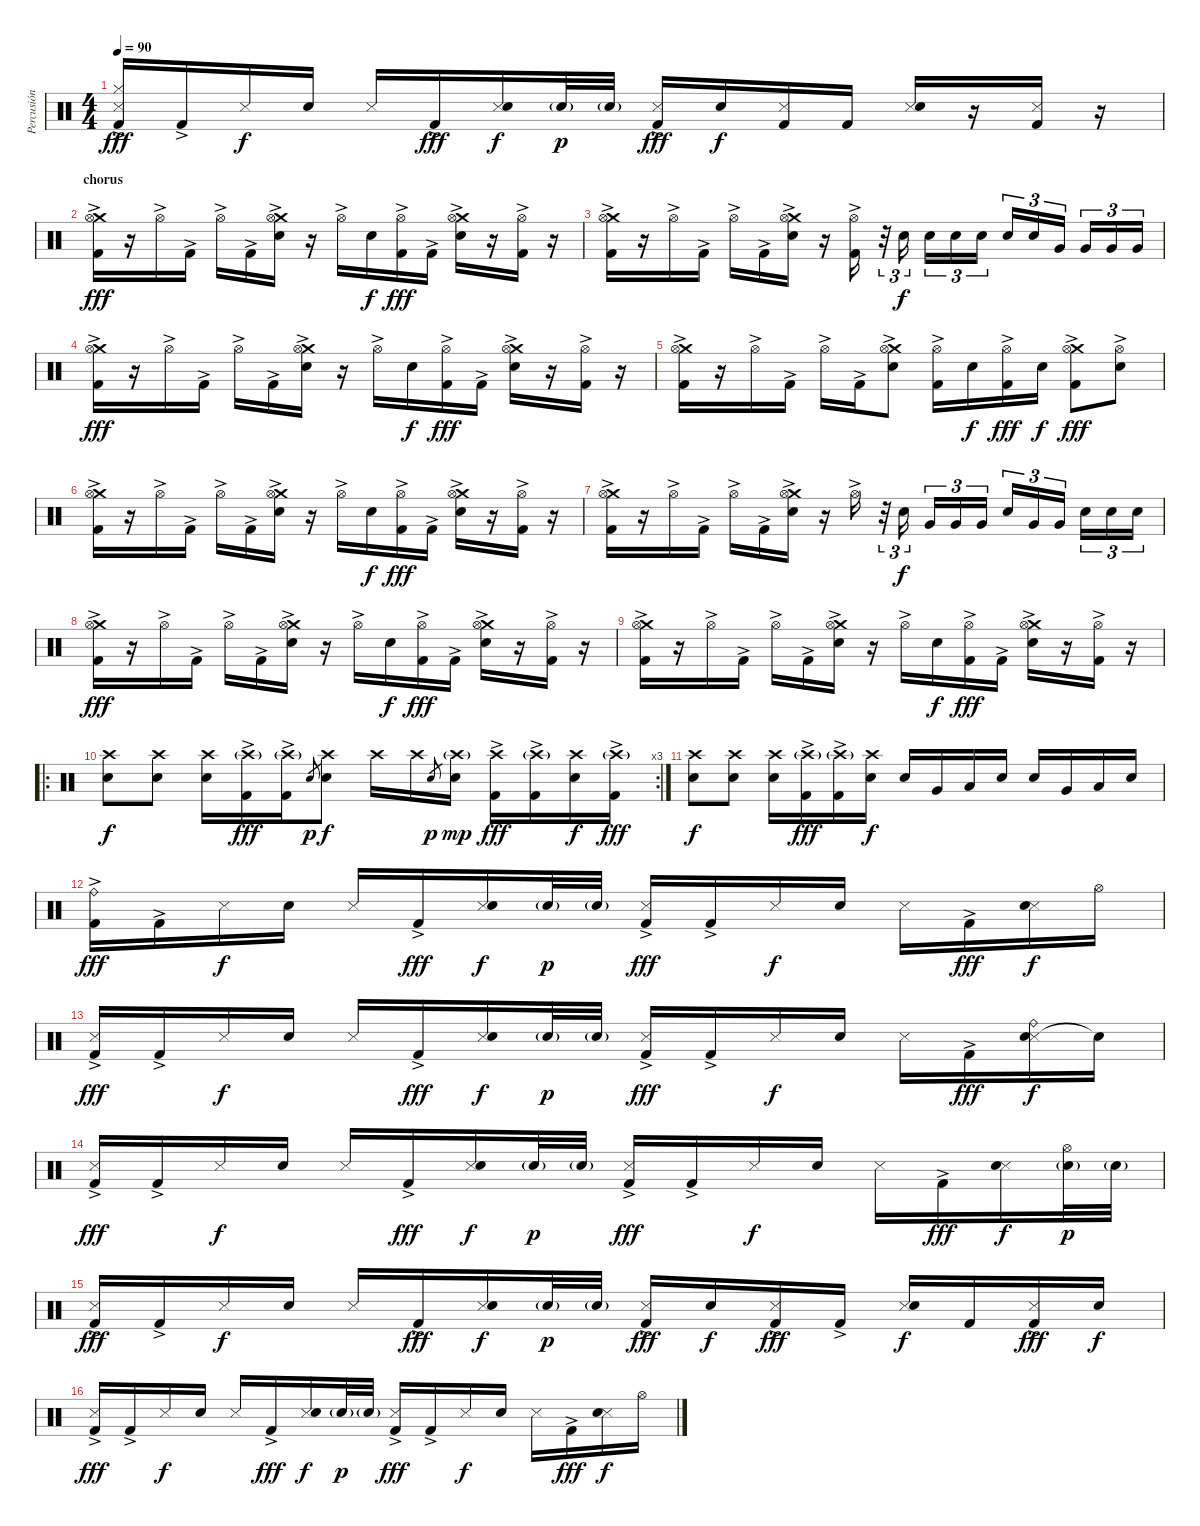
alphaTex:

\track ("Percusión" "Percusión") {instrument percussion}
\staff {score}
\articulation defaults
\ts (4 4)
\tempo 90
\clef neutral
\ks c
("Snare (side stick) 3" "Hi-Hat (closed)" "Kick (hit) 2"{ac}).16{dy fff} "Kick (hit) 2"{ac}.16 "Snare (side stick) 3".16{dy f} "Electric Snare (hit)".16 "Snare (side stick) 3".16 "Kick (hit) 2"{ac}.16{dy fff} ("Snare (side stick) 3" "Electric Snare (hit)").16{dy f} "Electric Snare (hit)"{g}.32{dy p} "Electric Snare (hit)"{g}.32 ("Snare (side stick) 3" "Kick (hit) 2"{ac}).16{dy fff} "Electric Snare (hit)".16{dy f} ("Snare (side stick) 3" "Kick (hit) 2").16 "Kick (hit) 2".16 ("Snare (side stick) 3" "Electric Snare (hit)").16 r.16 ("Snare (side stick) 3" "Kick (hit) 2").16 r.16 |
\section ("" "chorus")
("Crash medium (hit)" "Hi-Hat (open)"{ac} "Kick (hit) 2"{ac}).16{dy fff} r.16 "Hi-Hat (open)"{ac}.16 "Kick (hit) 2"{ac}.16 "Hi-Hat (open)"{ac}.16 "Kick (hit) 2"{ac}.16 ("Crash medium (hit)" "Hi-Hat (open)"{ac} "Electric Snare (hit)").16 r.16 "Hi-Hat (open)"{ac}.16 "Electric Snare (hit)".16{dy f} ("Hi-Hat (open)"{ac} "Kick (hit) 2"{ac}).16{dy fff} "Kick (hit) 2"{ac}.16 ("Crash medium (hit)" "Hi-Hat (open)"{ac} "Electric Snare (hit)").16 r.16 ("Hi-Hat (open)"{ac} "Kick (hit) 2").16 r.16 |
("Crash medium (hit)" "Hi-Hat (open)"{ac} "Kick (hit) 2"{ac}).16 r.16 "Hi-Hat (open)"{ac}.16 "Kick (hit) 2"{ac}.16 "Hi-Hat (open)"{ac}.16 "Kick (hit) 2"{ac}.16 ("Crash medium (hit)" "Hi-Hat (open)"{ac} "Electric Snare (hit)").16 r.16 ("Hi-Hat (open)"{ac} "Kick (hit) 2").16 r.32{tu (3 2)} "Electric Snare (hit)".16{tu (3 2) dy f} "Electric Snare (hit)".16{tu (3 2)} "Electric Snare (hit)".16{tu (3 2)} "Electric Snare (hit)".16{tu (3 2)} "Electric Snare (hit)".16{tu (3 2)} "Electric Snare (hit)".16{tu (3 2)} "Very Low Tom (hit)".16{tu (3 2)} "Very Low Tom (hit)".16{tu (3 2)} "Very Low Tom (hit)".16{tu (3 2)} "Very Low Tom (hit)".16{tu (3 2)} |
("Crash medium (hit)" "Hi-Hat (open)"{ac} "Kick (hit) 2"{ac}).16{dy fff} r.16 "Hi-Hat (open)"{ac}.16 "Kick (hit) 2"{ac}.16 "Hi-Hat (open)"{ac}.16 "Kick (hit) 2"{ac}.16 ("Crash medium (hit)" "Hi-Hat (open)"{ac} "Electric Snare (hit)").16 r.16 "Hi-Hat (open)"{ac}.16 "Electric Snare (hit)".16{dy f} ("Hi-Hat (open)"{ac} "Kick (hit) 2"{ac}).16{dy fff} "Kick (hit) 2"{ac}.16 ("Crash medium (hit)" "Hi-Hat (open)"{ac} "Electric Snare (hit)").16 r.16 ("Hi-Hat (open)"{ac} "Kick (hit) 2").16 r.16 |
("Crash medium (hit)" "Hi-Hat (open)" "Kick (hit) 2"{ac}).16 r.16 "Hi-Hat (open)"{ac}.16 "Kick (hit) 2"{ac}.16 "Hi-Hat (open)"{ac}.16 "Kick (hit) 2"{ac}.16 ("Crash medium (hit)" "Hi-Hat (open)"{ac} "Electric Snare (hit)").8 ("Hi-Hat (open)"{ac} "Kick (hit) 2"{ac}).16 "Electric Snare (hit)".16{dy f} ("Hi-Hat (open)"{ac} "Kick (hit) 2"{ac}).16{dy fff} "Electric Snare (hit)".16{dy f} ("Crash medium (hit)" "Hi-Hat (open)"{ac} "Kick (hit) 2"{ac}).8{dy fff} ("Hi-Hat (open)"{ac} "Electric Snare (hit)").8 |
("Crash medium (hit)" "Hi-Hat (open)" "Kick (hit) 2"{ac}).16 r.16 "Hi-Hat (open)"{ac}.16 "Kick (hit) 2"{ac}.16 "Hi-Hat (open)"{ac}.16 "Kick (hit) 2"{ac}.16 ("Crash medium (hit)" "Hi-Hat (open)"{ac} "Electric Snare (hit)").16 r.16 "Hi-Hat (open)"{ac}.16 "Electric Snare (hit)".16{dy f} ("Hi-Hat (open)"{ac} "Kick (hit) 2"{ac}).16{dy fff} "Kick (hit) 2"{ac}.16 ("Crash medium (hit)" "Hi-Hat (open)"{ac} "Electric Snare (hit)").16 r.16 ("Hi-Hat (open)"{ac} "Kick (hit) 2").16 r.16 |
("Crash medium (hit)" "Hi-Hat (open)"{ac} "Kick (hit) 2"{ac}).16 r.16 "Hi-Hat (open)"{ac}.16 "Kick (hit) 2"{ac}.16 "Hi-Hat (open)"{ac}.16 "Kick (hit) 2"{ac}.16 ("Crash medium (hit)" "Hi-Hat (open)"{ac} "Electric Snare (hit)").16 r.16 "Hi-Hat (open)"{ac}.16 r.32{tu (3 2)} "Electric Snare (hit)".16{tu (3 2) dy f} "Very Low Tom (hit)".16{tu (3 2)} "Very Low Tom (hit)".16{tu (3 2)} "Very Low Tom (hit)".16{tu (3 2)} "Electric Snare (hit)".16{tu (3 2)} "Very Low Tom (hit)".16{tu (3 2)} "Very Low Tom (hit)".16{tu (3 2)} "Electric Snare (hit)".16{tu (3 2)} "Electric Snare (hit)".16{tu (3 2)} "Electric Snare (hit)".16{tu (3 2)} |
("Crash medium (hit)" "Hi-Hat (open)" "Kick (hit) 2"{ac}).16{dy fff} r.16 "Hi-Hat (open)"{ac}.16 "Kick (hit) 2"{ac}.16 "Hi-Hat (open)"{ac}.16 "Kick (hit) 2"{ac}.16 ("Crash medium (hit)" "Hi-Hat (open)"{ac} "Electric Snare (hit)").16 r.16 "Hi-Hat (open)"{ac}.16 "Electric Snare (hit)".16{dy f} ("Hi-Hat (open)"{ac} "Kick (hit) 2"{ac}).16{dy fff} "Kick (hit) 2"{ac}.16 ("Crash medium (hit)" "Hi-Hat (open)"{ac} "Electric Snare (hit)").16 r.16 ("Hi-Hat (open)"{ac} "Kick (hit) 2").16 r.16 |
("Crash medium (hit)" "Hi-Hat (open)" "Kick (hit) 2"{ac}).16 r.16 "Hi-Hat (open)"{ac}.16 "Kick (hit) 2"{ac}.16 "Hi-Hat (open)"{ac}.16 "Kick (hit) 2"{ac}.16 ("Crash medium (hit)" "Hi-Hat (open)"{ac} "Electric Snare (hit)").16 r.16 "Hi-Hat (open)"{ac}.16 "Electric Snare (hit)".16{dy f} ("Hi-Hat (open)"{ac} "Kick (hit) 2"{ac}).16{dy fff} "Kick (hit) 2"{ac}.16 ("Crash medium (hit)" "Hi-Hat (open)"{ac} "Electric Snare (hit)").16 r.16 ("Hi-Hat (open)"{ac} "Kick (hit) 2").16 r.16 |
\ro
\rc 3
("Crash high (hit)" "Electric Snare (hit)").8{dy f} ("Crash high (hit)" "Electric Snare (hit)").8 ("Crash high (hit)" "Electric Snare (hit)").16 ("Crash high (hit)"{g} "Kick (hit) 2"{ac}).16{dy fff} ("Crash high (hit)"{g} "Kick (hit) 2"{ac}).16 "Electric Snare (hit)".8{gr dy p} ("Crash high (hit)" "Electric Snare (hit)").8{dy f} "Crash high (hit)".16 "Crash high (hit)".16 "Electric Snare (hit)".8{gr dy p} ("Crash high (hit)"{g} "Electric Snare (hit)").16{dy mp} ("Crash high (hit)" "Kick (hit) 2"{ac}).16{dy fff} ("Crash high (hit)"{g} "Kick (hit) 2"{ac}).16 ("Crash high (hit)" "Electric Snare (hit)").16{dy f} ("Crash high (hit)"{g} "Kick (hit) 2"{ac}).16{dy fff} |
("Crash high (hit)" "Electric Snare (hit)").8{dy f} ("Crash high (hit)" "Electric Snare (hit)").8 ("Crash high (hit)" "Electric Snare (hit)").16 ("Crash high (hit)"{g} "Kick (hit) 2"{ac}).16{dy fff} ("Crash high (hit)"{g} "Kick (hit) 2"{ac}).16 ("Crash high (hit)" "Electric Snare (hit)").16{dy f} "Electric Snare (hit)".16 "Very Low Tom (hit)".16 "Low Floor Tom (hit)".16 "Electric Snare (hit)".16 "Electric Snare (hit)".16 "Very Low Tom (hit)".16 "Low Floor Tom (hit)".16 "Electric Snare (hit)".16 |
("Ride (bell)" "Kick (hit) 2"{ac}).16{dy fff} "Kick (hit) 2"{ac}.16 "Snare (side stick) 3".16{dy f} "Electric Snare (hit)".16 "Snare (side stick) 3".16 "Kick (hit) 2"{ac}.16{dy fff} ("Snare (side stick) 3" "Electric Snare (hit)").16{dy f} "Electric Snare (hit)"{g}.32{dy p} "Electric Snare (hit)"{g}.32 ("Snare (side stick) 3" "Kick (hit) 2"{ac}).16{dy fff} "Kick (hit) 2"{ac}.16 "Snare (side stick) 3".16{dy f} "Electric Snare (hit)".16 "Snare (side stick) 3".16 "Kick (hit) 2"{ac}.16{dy fff} ("Snare (side stick) 3" "Electric Snare (hit)").16{dy f} "Hi-Hat (open)".16 |
("Snare (side stick) 3" "Kick (hit) 2"{ac}).16{dy fff} "Kick (hit) 2"{ac}.16 "Snare (side stick) 3".16{dy f} "Electric Snare (hit)".16 "Snare (side stick) 3".16 "Kick (hit) 2"{ac}.16{dy fff} ("Snare (side stick) 3" "Electric Snare (hit)").16{dy f} "Electric Snare (hit)"{g}.32{dy p} "Electric Snare (hit)"{g}.32 ("Snare (side stick) 3" "Kick (hit) 2"{ac}).16{dy fff} "Kick (hit) 2"{ac}.16 "Snare (side stick) 3".16{dy f} "Electric Snare (hit)".16 "Snare (side stick) 3".16 "Kick (hit) 2"{ac}.16{dy fff} ("Snare (side stick) 3" "Ride (bell)" "Electric Snare (hit)").16{dy f} "Snare (hit)"{t}.16 |
("Snare (side stick) 3" "Kick (hit) 2"{ac}).16{dy fff} "Kick (hit) 2"{ac}.16 "Snare (side stick) 3".16{dy f} "Electric Snare (hit)".16 "Snare (side stick) 3".16 "Kick (hit) 2"{ac}.16{dy fff} ("Snare (side stick) 3" "Electric Snare (hit)").16{dy f} "Electric Snare (hit)"{g}.32{dy p} "Electric Snare (hit)"{g}.32 ("Snare (side stick) 3" "Kick (hit) 2"{ac}).16{dy fff} "Kick (hit) 2"{ac}.16 "Snare (side stick) 3".16{dy f} "Electric Snare (hit)".16 "Snare (side stick) 3".16 "Kick (hit) 2"{ac}.16{dy fff} ("Snare (side stick) 3" "Electric Snare (hit)").16{dy f} ("Hi-Hat (open)" "Electric Snare (hit)"{g}).32{dy p} "Electric Snare (hit)"{g}.32 |
("Snare (side stick) 3" "Kick (hit) 2"{ac}).16{dy fff} "Kick (hit) 2"{ac}.16 "Snare (side stick) 3".16{dy f} "Electric Snare (hit)".16 "Snare (side stick) 3".16 "Kick (hit) 2"{ac}.16{dy fff} ("Snare (side stick) 3" "Electric Snare (hit)").16{dy f} "Electric Snare (hit)"{g}.32{dy p} "Electric Snare (hit)"{g}.32 ("Snare (side stick) 3" "Kick (hit) 2"{ac}).16{dy fff} "Electric Snare (hit)".16{dy f} ("Snare (side stick) 3" "Kick (hit) 2"{ac}).16{dy fff} "Kick (hit) 2"{ac}.16 ("Snare (side stick) 3" "Electric Snare (hit)").16{dy f} "Kick (hit) 2".16 ("Snare (side stick) 3" "Kick (hit) 2"{ac}).16{dy fff} "Electric Snare (hit)".16{dy f} |
("Snare (side stick) 3" "Kick (hit) 2"{ac}).16{dy fff} "Kick (hit) 2"{ac}.16 "Snare (side stick) 3".16{dy f} "Electric Snare (hit)".16 "Snare (side stick) 3".16 "Kick (hit) 2"{ac}.16{dy fff} ("Snare (side stick) 3" "Electric Snare (hit)").16{dy f} "Electric Snare (hit)"{g}.32{dy p} "Electric Snare (hit)"{g}.32 ("Snare (side stick) 3" "Kick (hit) 2"{ac}).16{dy fff} "Kick (hit) 2"{ac}.16 "Snare (side stick) 3".16{dy f} "Electric Snare (hit)".16 "Snare (side stick) 3".16 "Kick (hit) 2"{ac}.16{dy fff} ("Snare (side stick) 3" "Electric Snare (hit)").16{dy f} "Hi-Hat (open)".16
